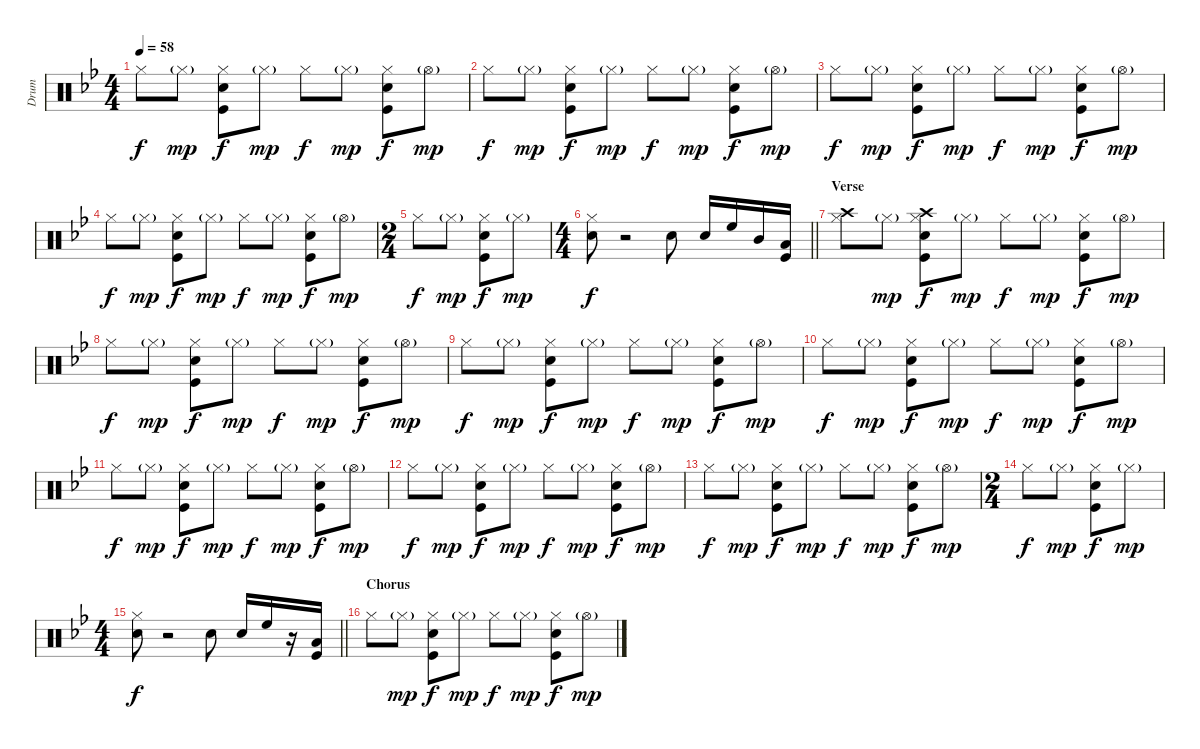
\track ("Drum" "Drum") {instrument percussion}
\staff {score}
\articulation defaults
\ts (4 4)
\tempo 58
\clef neutral
\ks bb "Hi-Hat (closed)".8{dy f} "Hi-Hat (closed)"{g}.8{dy mp}
("Hi-Hat (closed)" "Kick (hit)" "Snare (hit) 2").8{dy f} "Hi-Hat (closed)"{g}.8{dy mp} "Hi-Hat (closed)".8{dy f} "Hi-Hat (closed)"{g}.8{dy mp} ("Hi-Hat (closed)" "Kick (hit)" "Snare (hit) 2").8{dy f} "Hi-Hat (open)"{g}.8{dy mp} |
"Hi-Hat (closed)".8{dy f} "Hi-Hat (closed)"{g}.8{dy mp} ("Hi-Hat (closed)" "Kick (hit)" "Snare (hit) 2").8{dy f} "Hi-Hat (closed)"{g}.8{dy mp} "Hi-Hat (closed)".8{dy f} "Hi-Hat (closed)"{g}.8{dy mp} ("Hi-Hat (closed)" "Kick (hit)" "Snare (hit) 2").8{dy f} "Hi-Hat (open)"{g}.8{dy mp} |
"Hi-Hat (closed)".8{dy f} "Hi-Hat (closed)"{g}.8{dy mp} ("Hi-Hat (closed)" "Kick (hit)" "Snare (hit) 2").8{dy f} "Hi-Hat (closed)"{g}.8{dy mp} "Hi-Hat (closed)".8{dy f} "Hi-Hat (closed)"{g}.8{dy mp} ("Hi-Hat (closed)" "Kick (hit)" "Snare (hit) 2").8{dy f} "Hi-Hat (open)"{g}.8{dy mp} |
"Hi-Hat (closed)".8{dy f} "Hi-Hat (closed)"{g}.8{dy mp} ("Hi-Hat (closed)" "Kick (hit)" "Snare (hit) 2").8{dy f} "Hi-Hat (closed)"{g}.8{dy mp} "Hi-Hat (closed)".8{dy f} "Hi-Hat (closed)"{g}.8{dy mp} ("Hi-Hat (closed)" "Kick (hit)" "Snare (hit) 2").8{dy f} "Hi-Hat (open)"{g}.8{dy mp} |
\ts (2 4)
"Hi-Hat (closed)".8{dy f} "Hi-Hat (closed)"{g}.8{dy mp} ("Hi-Hat (closed)" "Kick (hit)" "Snare (hit) 2").8{dy f} "Hi-Hat (closed)"{g}.8{dy mp} |
\ts (4 4)
\barLineRight lightlight
("Hi-Hat (closed)" "Snare (hit) 2").8{dy f} r.2 "Snare (hit) 2".8 "Snare (hit) 2".16 "High Floor Tom (hit)".16 "Mid Tom (hit)".16 ("Kick (hit)" "Low Tom (hit)").16 |
\section ("" "Verse")
("Crash high (hit)" "Hi-Hat (closed)").8 "Hi-Hat (closed)"{g}.8{dy mp} ("Crash high (hit)" "Hi-Hat (closed)" "Kick (hit)" "Snare (hit) 2").8{dy f} "Hi-Hat (closed)"{g}.8{dy mp} "Hi-Hat (closed)".8{dy f} "Hi-Hat (closed)"{g}.8{dy mp} ("Hi-Hat (closed)" "Kick (hit)" "Snare (hit) 2").8{dy f} "Hi-Hat (open)"{g}.8{dy mp} |
"Hi-Hat (closed)".8{dy f} "Hi-Hat (closed)"{g}.8{dy mp} ("Hi-Hat (closed)" "Kick (hit)" "Snare (hit) 2").8{dy f} "Hi-Hat (closed)"{g}.8{dy mp} "Hi-Hat (closed)".8{dy f} "Hi-Hat (closed)"{g}.8{dy mp} ("Hi-Hat (closed)" "Kick (hit)" "Snare (hit) 2").8{dy f} "Hi-Hat (open)"{g}.8{dy mp} |
"Hi-Hat (closed)".8{dy f} "Hi-Hat (closed)"{g}.8{dy mp} ("Hi-Hat (closed)" "Kick (hit)" "Snare (hit) 2").8{dy f} "Hi-Hat (closed)"{g}.8{dy mp} "Hi-Hat (closed)".8{dy f} "Hi-Hat (closed)"{g}.8{dy mp} ("Hi-Hat (closed)" "Kick (hit)" "Snare (hit) 2").8{dy f} "Hi-Hat (open)"{g}.8{dy mp} |
"Hi-Hat (closed)".8{dy f} "Hi-Hat (closed)"{g}.8{dy mp} ("Hi-Hat (closed)" "Kick (hit)" "Snare (hit) 2").8{dy f} "Hi-Hat (closed)"{g}.8{dy mp} "Hi-Hat (closed)".8{dy f} "Hi-Hat (closed)"{g}.8{dy mp} ("Hi-Hat (closed)" "Kick (hit)" "Snare (hit) 2").8{dy f} "Hi-Hat (open)"{g}.8{dy mp} |
"Hi-Hat (closed)".8{dy f} "Hi-Hat (closed)"{g}.8{dy mp} ("Hi-Hat (closed)" "Kick (hit)" "Snare (hit) 2").8{dy f} "Hi-Hat (closed)"{g}.8{dy mp} "Hi-Hat (closed)".8{dy f} "Hi-Hat (closed)"{g}.8{dy mp} ("Hi-Hat (closed)" "Kick (hit)" "Snare (hit) 2").8{dy f} "Hi-Hat (open)"{g}.8{dy mp} |
"Hi-Hat (closed)".8{dy f} "Hi-Hat (closed)"{g}.8{dy mp} ("Hi-Hat (closed)" "Kick (hit)" "Snare (hit) 2").8{dy f} "Hi-Hat (closed)"{g}.8{dy mp} "Hi-Hat (closed)".8{dy f} "Hi-Hat (closed)"{g}.8{dy mp} ("Hi-Hat (closed)" "Kick (hit)" "Snare (hit) 2").8{dy f} "Hi-Hat (open)"{g}.8{dy mp} |
"Hi-Hat (closed)".8{dy f} "Hi-Hat (closed)"{g}.8{dy mp} ("Hi-Hat (closed)" "Kick (hit)" "Snare (hit) 2").8{dy f} "Hi-Hat (closed)"{g}.8{dy mp} "Hi-Hat (closed)".8{dy f} "Hi-Hat (closed)"{g}.8{dy mp} ("Hi-Hat (closed)" "Kick (hit)" "Snare (hit) 2").8{dy f} "Hi-Hat (open)"{g}.8{dy mp} |
\ts (2 4)
"Hi-Hat (closed)".8{dy f} "Hi-Hat (closed)"{g}.8{dy mp} ("Hi-Hat (closed)" "Kick (hit)" "Snare (hit) 2").8{dy f} "Hi-Hat (closed)"{g}.8{dy mp} |
\ts (4 4)
\barLineRight lightlight
("Hi-Hat (closed)" "Snare (hit) 2").8{dy f} r.2 "Snare (hit) 2".8 "Snare (hit) 2".16 "High Floor Tom (hit)".16 r.16 ("Kick (hit)" "Low Tom (hit)").16 |
\section ("" "Chorus")
"Hi-Hat (closed)".8 "Hi-Hat (closed)"{g}.8{dy mp} ("Hi-Hat (closed)" "Kick (hit)" "Snare (hit) 2").8{dy f} "Hi-Hat (closed)"{g}.8{dy mp} "Hi-Hat (closed)".8{dy f} "Hi-Hat (closed)"{g}.8{dy mp} ("Hi-Hat (closed)" "Kick (hit)" "Snare (hit) 2").8{dy f} "Hi-Hat (open)"{g}.8{dy mp}
